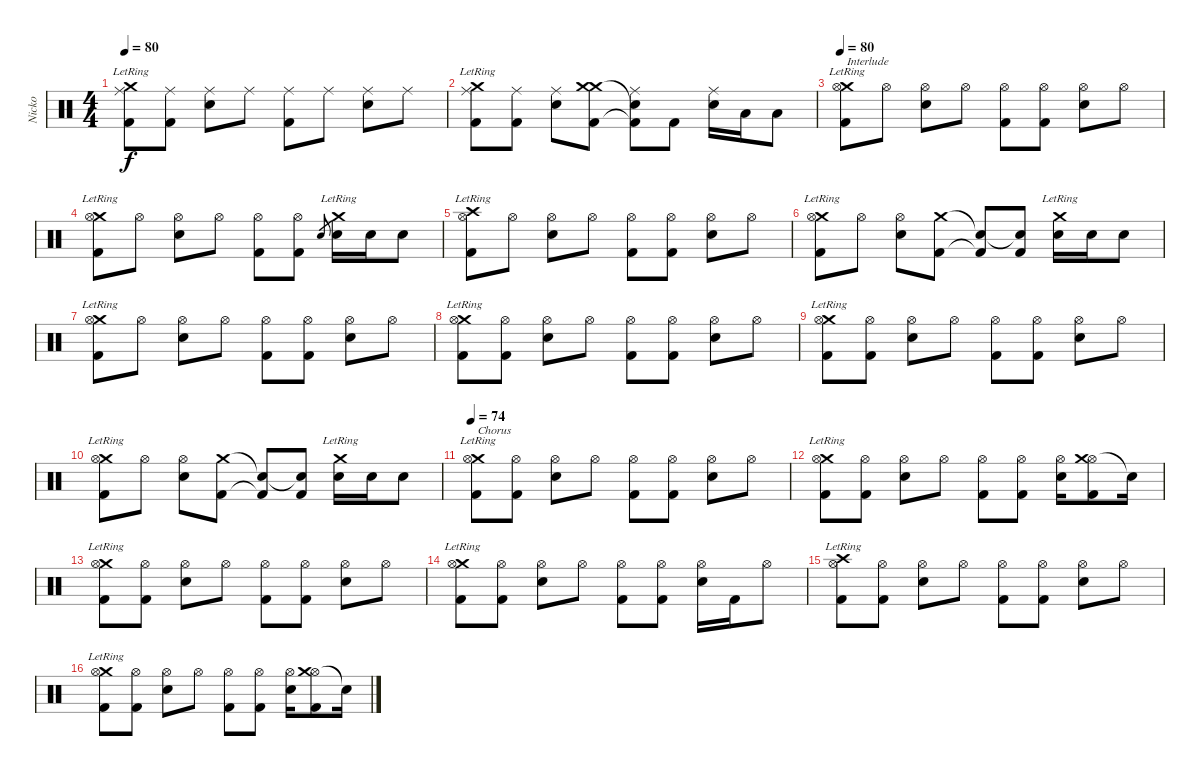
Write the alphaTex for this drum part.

\track ("Nicko" "Nicko") {instrument percussion}
\staff {score}
\articulation defaults
\ts (4 4)
\tempo 80
\clef neutral
\ks c
("Crash medium (hit)"{lr} "Ride (middle)" "Kick (hit) 2").8{dy f} ("Ride (middle)" "Kick (hit) 2").8 ("Electric Snare (hit)" "Ride (middle)").8 "Ride (middle)".8 ("Ride (middle)" "Kick (hit) 2").8 "Ride (middle)".8 ("Ride (middle)" "Electric Snare (hit)").8 "Ride (middle)".8 |
("Crash medium (hit)"{lr} "Ride (middle)" "Kick (hit) 2").8 ("Ride (middle)" "Kick (hit) 2").8 ("Electric Snare (hit)" "Ride (middle)").8 ("Crash medium (hit)" "Crash medium (hit)" "Kick (hit) 2").8 ("Snare (hit)"{t} "Ride (middle)" "Kick (hit) 2"{t}).8 "Kick (hit) 2".8 ("Ride (middle)" "Electric Snare (hit)").16 "Low Tom (hit)".16 "Low Tom (hit)".8 |
\tempo 80
("Crash medium (hit)"{lr} "Hi-Hat (open)" "Kick (hit) 2").8{txt "Interlude"} "Hi-Hat (open)".8 ("Electric Snare (hit)" "Hi-Hat (open)").8 "Hi-Hat (open)".8 ("Hi-Hat (open)" "Kick (hit) 2").8 ("Hi-Hat (open)" "Kick (hit) 2").8 ("Hi-Hat (open)" "Electric Snare (hit)").8 "Hi-Hat (open)".8 |
("Crash medium (hit)"{lr} "Hi-Hat (open)" "Kick (hit) 2").8 "Hi-Hat (open)".8 ("Electric Snare (hit)" "Hi-Hat (open)").8 "Hi-Hat (open)".8 ("Hi-Hat (open)" "Kick (hit) 2").8 ("Hi-Hat (open)" "Kick (hit) 2").8 "Electric Snare (hit)".8{gr} ("Crash medium (hit)"{lr} "Electric Snare (hit)").16 "Electric Snare (hit)".16 "Electric Snare (hit)".8 |
("Crash high (hit)"{lr} "Hi-Hat (open)" "Kick (hit) 2").8 "Hi-Hat (open)".8 ("Electric Snare (hit)" "Hi-Hat (open)").8 "Hi-Hat (open)".8 ("Hi-Hat (open)" "Kick (hit) 2").8 ("Hi-Hat (open)" "Kick (hit) 2").8 ("Hi-Hat (open)" "Electric Snare (hit)").8 "Hi-Hat (open)".8 |
("Crash medium (hit)"{lr} "Hi-Hat (open)" "Kick (hit) 2").8 "Hi-Hat (open)".8 ("Electric Snare (hit)" "Hi-Hat (open)").8 ("Crash medium (hit)" "Kick (hit) 2").8 ("Snare (hit)"{t} "Kick (hit) 2"{t}).8 ("Snare (hit)"{t} "Kick (hit) 2").8 ("Crash medium (hit)"{lr} "Electric Snare (hit)").16 "Electric Snare (hit)".16 "Electric Snare (hit)".8 |
("Crash medium (hit)"{lr} "Hi-Hat (open)" "Kick (hit) 2").8 "Hi-Hat (open)".8 ("Electric Snare (hit)" "Hi-Hat (open)").8 "Hi-Hat (open)".8 ("Hi-Hat (open)" "Kick (hit) 2").8 ("Hi-Hat (open)" "Kick (hit) 2").8 ("Hi-Hat (open)" "Electric Snare (hit)").8 "Hi-Hat (open)".8 |
("Crash medium (hit)"{lr} "Hi-Hat (open)" "Kick (hit) 2").8 ("Hi-Hat (open)" "Kick (hit) 2").8 ("Electric Snare (hit)" "Hi-Hat (open)").8 "Hi-Hat (open)".8 ("Hi-Hat (open)" "Kick (hit) 2").8 ("Hi-Hat (open)" "Kick (hit) 2").8 ("Hi-Hat (open)" "Electric Snare (hit)").8 "Hi-Hat (open)".8 |
("Crash medium (hit)"{lr} "Hi-Hat (open)" "Kick (hit) 2").8 ("Hi-Hat (open)" "Kick (hit) 2").8 ("Electric Snare (hit)" "Hi-Hat (open)").8 "Hi-Hat (open)".8 ("Hi-Hat (open)" "Kick (hit) 2").8 ("Hi-Hat (open)" "Kick (hit) 2").8 ("Hi-Hat (open)" "Electric Snare (hit)").8 "Hi-Hat (open)".8 |
("Crash medium (hit)"{lr} "Hi-Hat (open)" "Kick (hit) 2").8 "Hi-Hat (open)".8 ("Electric Snare (hit)" "Hi-Hat (open)").8 ("Crash medium (hit)" "Kick (hit) 2").8 ("Snare (hit)"{t} "Kick (hit) 2"{t}).8 ("Snare (hit)"{t} "Kick (hit) 2").8 ("Crash medium (hit)"{lr} "Electric Snare (hit)").16 "Electric Snare (hit)".16 "Electric Snare (hit)".8 |
\tempo 74
("Crash medium (hit)"{lr} "Hi-Hat (open)" "Kick (hit) 2").8{txt "Chorus"} ("Hi-Hat (open)" "Kick (hit) 2").8 ("Hi-Hat (open)" "Electric Snare (hit)").8 "Hi-Hat (open)".8 ("Hi-Hat (open)" "Kick (hit) 2").8 ("Hi-Hat (open)" "Kick (hit) 2").8 ("Hi-Hat (open)" "Electric Snare (hit)").8 "Hi-Hat (open)".8 |
("Crash medium (hit)"{lr} "Hi-Hat (open)" "Kick (hit) 2").8 ("Hi-Hat (open)" "Kick (hit) 2").8 ("Hi-Hat (open)" "Electric Snare (hit)").8 "Hi-Hat (open)".8 ("Hi-Hat (open)" "Kick (hit) 2").8 ("Hi-Hat (open)" "Kick (hit) 2").8 ("Hi-Hat (open)" "Electric Snare (hit)").16 ("Hi-Hat (open)" "Crash medium (hit)" "Kick (hit) 2").8 "Snare (hit)"{t}.16 |
("Crash medium (hit)"{lr} "Hi-Hat (open)" "Kick (hit) 2").8 ("Hi-Hat (open)" "Kick (hit) 2").8 ("Hi-Hat (open)" "Electric Snare (hit)").8 "Hi-Hat (open)".8 ("Hi-Hat (open)" "Kick (hit) 2").8 ("Hi-Hat (open)" "Kick (hit) 2").8 ("Hi-Hat (open)" "Electric Snare (hit)").8 "Hi-Hat (open)".8 |
("Crash medium (hit)"{lr} "Hi-Hat (open)" "Kick (hit) 2").8 ("Hi-Hat (open)" "Kick (hit) 2").8 ("Hi-Hat (open)" "Electric Snare (hit)").8 "Hi-Hat (open)".8 ("Hi-Hat (open)" "Kick (hit) 2").8 ("Hi-Hat (open)" "Kick (hit) 2").8 ("Hi-Hat (open)" "Electric Snare (hit)").16 "Kick (hit) 2".16 "Hi-Hat (open)".8 |
("Crash high (hit)"{lr} "Hi-Hat (open)" "Kick (hit) 2").8 ("Hi-Hat (open)" "Kick (hit) 2").8 ("Hi-Hat (open)" "Electric Snare (hit)").8 "Hi-Hat (open)".8 ("Hi-Hat (open)" "Kick (hit) 2").8 ("Hi-Hat (open)" "Kick (hit) 2").8 ("Hi-Hat (open)" "Electric Snare (hit)").8 "Hi-Hat (open)".8 |
("Crash medium (hit)"{lr} "Hi-Hat (open)" "Kick (hit) 2").8 ("Hi-Hat (open)" "Kick (hit) 2").8 ("Hi-Hat (open)" "Electric Snare (hit)").8 "Hi-Hat (open)".8 ("Hi-Hat (open)" "Kick (hit) 2").8 ("Hi-Hat (open)" "Kick (hit) 2").8 ("Hi-Hat (open)" "Electric Snare (hit)").16 ("Hi-Hat (open)" "Crash medium (hit)" "Kick (hit) 2").8 "Snare (hit)"{t}.16
